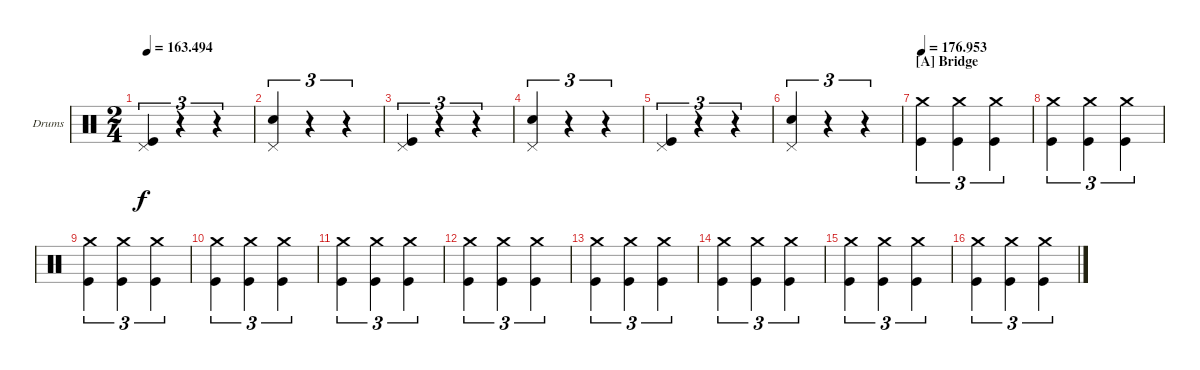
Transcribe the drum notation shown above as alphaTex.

\defaultSystemsLayout 4
\bracketExtendMode groupsimilarinstruments
\firstSystemTrackNameOrientation horizontal
\otherSystemsTrackNameOrientation horizontal
\track ("Drumkit" "Drums") {instrument percussion}
\staff {score}
\articulation defaults
\ts (2 4)
\tempo
163.494
\accidentals auto
\clef neutral
\ottava regular
\simile none
\ks c
("Kick (hit)" "Pedal Hi-Hat (hit)").4{tu (3 2) dy f} r.4{tu (3 2)} r.4{tu (3 2)} |
("Snare (hit) 2" "Pedal Hi-Hat (hit)").4{tu (3 2)} r.4{tu (3 2)} r.4{tu (3 2)} |
("Kick (hit)" "Pedal Hi-Hat (hit)").4{tu (3 2)} r.4{tu (3 2)} r.4{tu (3 2)} |
("Snare (hit) 2" "Pedal Hi-Hat (hit)").4{tu (3 2)} r.4{tu (3 2)} r.4{tu (3 2)} |
("Kick (hit)" "Pedal Hi-Hat (hit)").4{tu (3 2)} r.4{tu (3 2)} r.4{tu (3 2)} |
("Snare (hit) 2" "Pedal Hi-Hat (hit)").4{tu (3 2)} r.4{tu (3 2)} r.4{tu (3 2)} |
\section ("A" "Bridge")
\tempo
176.953 ("Kick (hit)" "Crash medium (hit)").4{tu (3 2)} ("Kick (hit)" "Crash medium (hit)").4{tu (3 2)} ("Kick (hit)" "Crash medium (hit)").4{tu (3 2)} |
("Kick (hit)" "Crash medium (hit)").4{tu (3 2)} ("Kick (hit)" "Crash medium (hit)").4{tu (3 2)} ("Kick (hit)" "Crash medium (hit)").4{tu (3 2)} |
("Kick (hit)" "Crash medium (hit)").4{tu (3 2)} ("Kick (hit)" "Crash medium (hit)").4{tu (3 2)} ("Kick (hit)" "Crash medium (hit)").4{tu (3 2)} |
("Kick (hit)" "Crash medium (hit)").4{tu (3 2)} ("Kick (hit)" "Crash medium (hit)").4{tu (3 2)} ("Kick (hit)" "Crash medium (hit)").4{tu (3 2)} |
("Kick (hit)" "Crash medium (hit)").4{tu (3 2)} ("Kick (hit)" "Crash medium (hit)").4{tu (3 2)} ("Kick (hit)" "Crash medium (hit)").4{tu (3 2)} |
("Kick (hit)" "Crash medium (hit)").4{tu (3 2)} ("Kick (hit)" "Crash medium (hit)").4{tu (3 2)} ("Kick (hit)" "Crash medium (hit)").4{tu (3 2)} |
("Kick (hit)" "Crash medium (hit)").4{tu (3 2)} ("Kick (hit)" "Crash medium (hit)").4{tu (3 2)} ("Kick (hit)" "Crash medium (hit)").4{tu (3 2)} |
("Kick (hit)" "Crash medium (hit)").4{tu (3 2)} ("Kick (hit)" "Crash medium (hit)").4{tu (3 2)} ("Kick (hit)" "Crash medium (hit)").4{tu (3 2)} |
("Kick (hit)" "Crash medium (hit)").4{tu (3 2)} ("Kick (hit)" "Crash medium (hit)").4{tu (3 2)} ("Kick (hit)" "Crash medium (hit)").4{tu (3 2)} |
("Kick (hit)" "Crash medium (hit)").4{tu (3 2)} ("Kick (hit)" "Crash medium (hit)").4{tu (3 2)} ("Kick (hit)" "Crash medium (hit)").4{tu (3 2)}
